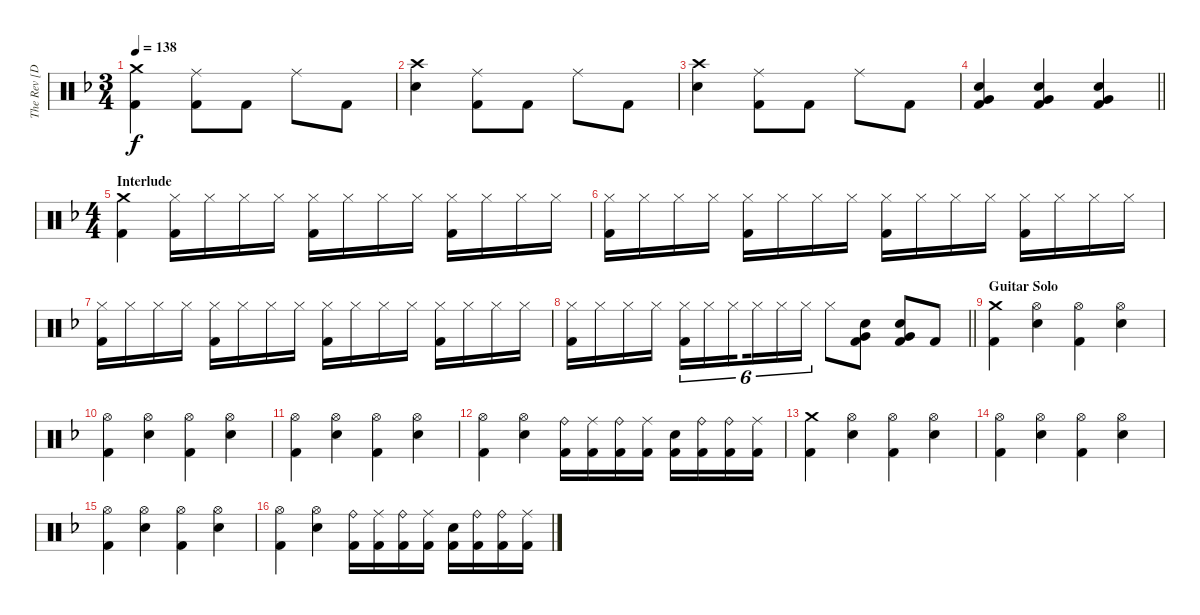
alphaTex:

\track ("The Rev [Drum]" "The Rev [D") {instrument percussion}
\staff {score}
\articulation defaults
\ts (3 4)
\tempo 138
\clef neutral
\ks f
("Crash medium (hit)" "Kick (hit) 2").4{dy f} ("Ride (middle)" "Kick (hit) 2").8 "Kick (hit) 2".8 "Ride (middle)".8 "Kick (hit) 2".8 |
("Crash high (hit)" "Electric Snare (hit)").4 ("Ride (middle)" "Kick (hit) 2").8 "Kick (hit) 2".8 "Ride (middle)".8 "Kick (hit) 2".8 |
("Crash high (hit)" "Electric Snare (hit)").4 ("Ride (middle)" "Kick (hit) 2").8 "Kick (hit) 2".8 "Ride (middle)".8 "Kick (hit) 2".8 |
\barLineRight lightlight
("Very Low Tom (hit)" "Electric Snare (hit)" "Kick (hit) 2").4 ("Very Low Tom (hit)" "Electric Snare (hit)" "Kick (hit) 2").4 ("Very Low Tom (hit)" "Electric Snare (hit)" "Kick (hit) 2").4 |
\ts (4 4)
\section ("" "Interlude")
("Crash medium (hit)" "Kick (hit) 2").4 ("Hi-Hat (closed)" "Kick (hit) 2").16 "Hi-Hat (closed)".16 "Hi-Hat (closed)".16 "Hi-Hat (closed)".16 ("Hi-Hat (closed)" "Kick (hit) 2").16 "Hi-Hat (closed)".16 "Hi-Hat (closed)".16 "Hi-Hat (closed)".16 ("Hi-Hat (closed)" "Kick (hit) 2").16 "Hi-Hat (closed)".16 "Hi-Hat (closed)".16 "Hi-Hat (closed)".16 |
("Hi-Hat (closed)" "Kick (hit) 2").16 "Hi-Hat (closed)".16 "Hi-Hat (closed)".16 "Hi-Hat (closed)".16 ("Hi-Hat (closed)" "Kick (hit) 2").16 "Hi-Hat (closed)".16 "Hi-Hat (closed)".16 "Hi-Hat (closed)".16 ("Hi-Hat (closed)" "Kick (hit) 2").16 "Hi-Hat (closed)".16 "Hi-Hat (closed)".16 "Hi-Hat (closed)".16 ("Hi-Hat (closed)" "Kick (hit) 2").16 "Hi-Hat (closed)".16 "Hi-Hat (closed)".16 "Hi-Hat (closed)".16 |
("Hi-Hat (closed)" "Kick (hit) 2").16 "Hi-Hat (closed)".16 "Hi-Hat (closed)".16 "Hi-Hat (closed)".16 ("Hi-Hat (closed)" "Kick (hit) 2").16 "Hi-Hat (closed)".16 "Hi-Hat (closed)".16 "Hi-Hat (closed)".16 ("Hi-Hat (closed)" "Kick (hit) 2").16 "Hi-Hat (closed)".16 "Hi-Hat (closed)".16 "Hi-Hat (closed)".16 ("Hi-Hat (closed)" "Kick (hit) 2").16 "Hi-Hat (closed)".16 "Hi-Hat (closed)".16 "Hi-Hat (closed)".16 |
\barLineRight lightlight
("Hi-Hat (closed)" "Kick (hit) 2").16 "Hi-Hat (closed)".16 "Hi-Hat (closed)".16 "Hi-Hat (closed)".16 ("Hi-Hat (closed)" "Kick (hit) 2").16{tu (6 4)} "Hi-Hat (closed)".16{tu (6 4)} "Hi-Hat (closed)".16{tu (6 4) beam splitsecondary} "Hi-Hat (closed)".16{tu (6 4)} "Hi-Hat (closed)".16{tu (6 4)} "Hi-Hat (closed)".16{tu (6 4)} "Hi-Hat (closed)".8 ("Very Low Tom (hit)" "Electric Snare (hit)" "Kick (hit) 2").8 ("Very Low Tom (hit)" "Electric Snare (hit)" "Kick (hit) 2").8 "Kick (hit) 2".8 |
\section ("" "Guitar Solo")
("Crash medium (hit)" "Kick (hit) 2").4 ("Hi-Hat (open)" "Electric Snare (hit)").4 ("Hi-Hat (open)" "Kick (hit) 2").4 ("Hi-Hat (open)" "Electric Snare (hit)").4 |
("Hi-Hat (open)" "Kick (hit) 2").4 ("Hi-Hat (open)" "Electric Snare (hit)").4 ("Hi-Hat (open)" "Kick (hit) 2").4 ("Hi-Hat (open)" "Electric Snare (hit)").4 |
("Hi-Hat (open)" "Kick (hit) 2").4 ("Hi-Hat (open)" "Electric Snare (hit)").4 ("Hi-Hat (open)" "Kick (hit) 2").4 ("Hi-Hat (open)" "Electric Snare (hit)").4 |
("Hi-Hat (open)" "Kick (hit) 2").4 ("Hi-Hat (open)" "Electric Snare (hit)").4 ("Ride (bell)" "Kick (hit) 2").16 ("Ride (middle)" "Kick (hit) 2").16 ("Ride (bell)" "Kick (hit) 2").16 ("Ride (middle)" "Kick (hit) 2").16 ("Electric Snare (hit)" "Kick (hit) 2").16 ("Ride (bell)" "Kick (hit) 2").16 ("Ride (bell)" "Kick (hit) 2").16 ("Ride (middle)" "Kick (hit) 2").16 |
("Crash medium (hit)" "Kick (hit) 2").4 ("Hi-Hat (open)" "Electric Snare (hit)").4 ("Hi-Hat (open)" "Kick (hit) 2").4 ("Hi-Hat (open)" "Electric Snare (hit)").4 |
("Hi-Hat (open)" "Kick (hit) 2").4 ("Hi-Hat (open)" "Electric Snare (hit)").4 ("Hi-Hat (open)" "Kick (hit) 2").4 ("Hi-Hat (open)" "Electric Snare (hit)").4 |
("Hi-Hat (open)" "Kick (hit) 2").4 ("Hi-Hat (open)" "Electric Snare (hit)").4 ("Hi-Hat (open)" "Kick (hit) 2").4 ("Hi-Hat (open)" "Electric Snare (hit)").4 |
("Hi-Hat (open)" "Kick (hit) 2").4 ("Hi-Hat (open)" "Electric Snare (hit)").4 ("Ride (bell)" "Kick (hit) 2").16 ("Ride (middle)" "Kick (hit) 2").16 ("Ride (bell)" "Kick (hit) 2").16 ("Ride (middle)" "Kick (hit) 2").16 ("Electric Snare (hit)" "Kick (hit) 2").16 ("Ride (bell)" "Kick (hit) 2").16 ("Ride (bell)" "Kick (hit) 2").16 ("Ride (middle)" "Kick (hit) 2").16
